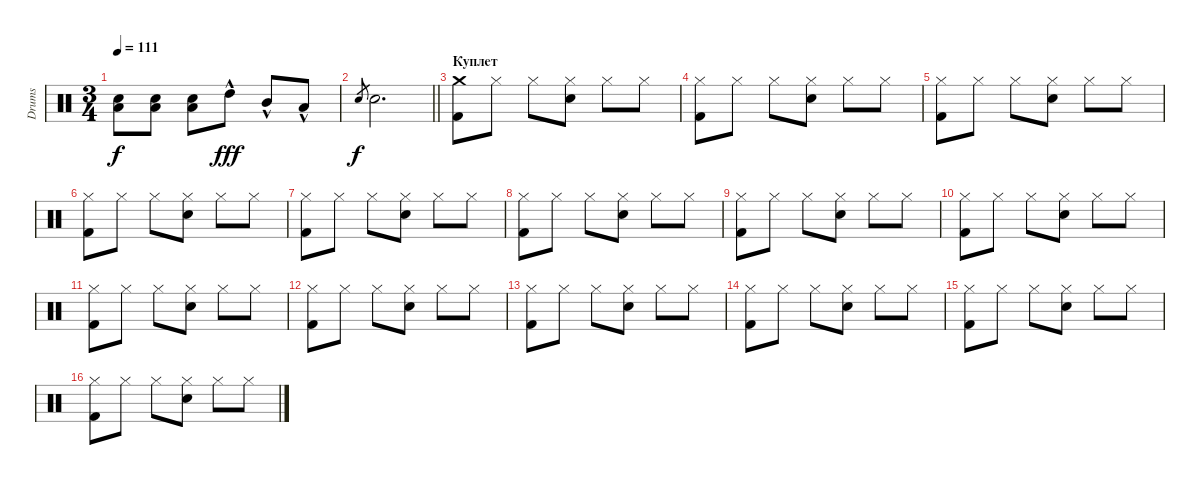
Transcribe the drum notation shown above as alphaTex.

\track ("Drums" "Drums") {instrument percussion}
\staff {score}
\articulation defaults
\ts (3 4)
\tempo 111
\clef neutral
\ks c
("Low Floor Tom (hit)" "Snare (hit) 2").8{dy f} ("Low Floor Tom (hit)" "Snare (hit) 2").8 ("Low Floor Tom (hit)" "Snare (hit) 2").8 "High Tom (hit)"{hac}.8{dy fff} "Mid Tom (hit)"{hac}.8 "Low Tom (hit)"{hac}.8 |
\barLineRight lightlight "Electric Snare (hit)".8{gr dy f} "Snare (hit) 2".2{d}
|
\section ("" "Куплет")
("Crash medium (hit)" "Kick (hit) 2").8 "Hi-Hat (closed)".8 "Hi-Hat (closed)".8 ("Hi-Hat (closed)" "Snare (hit) 2").8 "Hi-Hat (closed)".8 "Hi-Hat (closed)".8 |
("Hi-Hat (closed)" "Kick (hit) 2").8 "Hi-Hat (closed)".8 "Hi-Hat (closed)".8 ("Hi-Hat (closed)" "Snare (hit) 2").8 "Hi-Hat (closed)".8 "Hi-Hat (closed)".8 |
("Hi-Hat (closed)" "Kick (hit) 2").8 "Hi-Hat (closed)".8 "Hi-Hat (closed)".8 ("Hi-Hat (closed)" "Snare (hit) 2").8 "Hi-Hat (closed)".8 "Hi-Hat (closed)".8 |
("Hi-Hat (closed)" "Kick (hit) 2").8 "Hi-Hat (closed)".8 "Hi-Hat (closed)".8 ("Hi-Hat (closed)" "Snare (hit) 2").8 "Hi-Hat (closed)".8 "Hi-Hat (closed)".8 |
("Hi-Hat (closed)" "Kick (hit) 2").8 "Hi-Hat (closed)".8 "Hi-Hat (closed)".8 ("Hi-Hat (closed)" "Snare (hit) 2").8 "Hi-Hat (closed)".8 "Hi-Hat (closed)".8 |
("Hi-Hat (closed)" "Kick (hit) 2").8 "Hi-Hat (closed)".8 "Hi-Hat (closed)".8 ("Hi-Hat (closed)" "Snare (hit) 2").8 "Hi-Hat (closed)".8 "Hi-Hat (closed)".8 |
("Hi-Hat (closed)" "Kick (hit) 2").8 "Hi-Hat (closed)".8 "Hi-Hat (closed)".8 ("Hi-Hat (closed)" "Snare (hit) 2").8 "Hi-Hat (closed)".8 "Hi-Hat (closed)".8 |
("Hi-Hat (closed)" "Kick (hit) 2").8 "Hi-Hat (closed)".8 "Hi-Hat (closed)".8 ("Hi-Hat (closed)" "Snare (hit) 2").8 "Hi-Hat (closed)".8 "Hi-Hat (closed)".8 |
("Hi-Hat (closed)" "Kick (hit) 2").8 "Hi-Hat (closed)".8 "Hi-Hat (closed)".8 ("Hi-Hat (closed)" "Snare (hit) 2").8 "Hi-Hat (closed)".8 "Hi-Hat (closed)".8 |
("Hi-Hat (closed)" "Kick (hit) 2").8 "Hi-Hat (closed)".8 "Hi-Hat (closed)".8 ("Hi-Hat (closed)" "Snare (hit) 2").8 "Hi-Hat (closed)".8 "Hi-Hat (closed)".8 |
("Hi-Hat (closed)" "Kick (hit) 2").8 "Hi-Hat (closed)".8 "Hi-Hat (closed)".8 ("Hi-Hat (closed)" "Snare (hit) 2").8 "Hi-Hat (closed)".8 "Hi-Hat (closed)".8 |
("Hi-Hat (closed)" "Kick (hit) 2").8 "Hi-Hat (closed)".8 "Hi-Hat (closed)".8 ("Hi-Hat (closed)" "Snare (hit) 2").8 "Hi-Hat (closed)".8 "Hi-Hat (closed)".8 |
("Hi-Hat (closed)" "Kick (hit) 2").8 "Hi-Hat (closed)".8 "Hi-Hat (closed)".8 ("Hi-Hat (closed)" "Snare (hit) 2").8 "Hi-Hat (closed)".8 "Hi-Hat (closed)".8 |
("Hi-Hat (closed)" "Kick (hit) 2").8 "Hi-Hat (closed)".8 "Hi-Hat (closed)".8 ("Hi-Hat (closed)" "Snare (hit) 2").8 "Hi-Hat (closed)".8 "Hi-Hat (closed)".8
